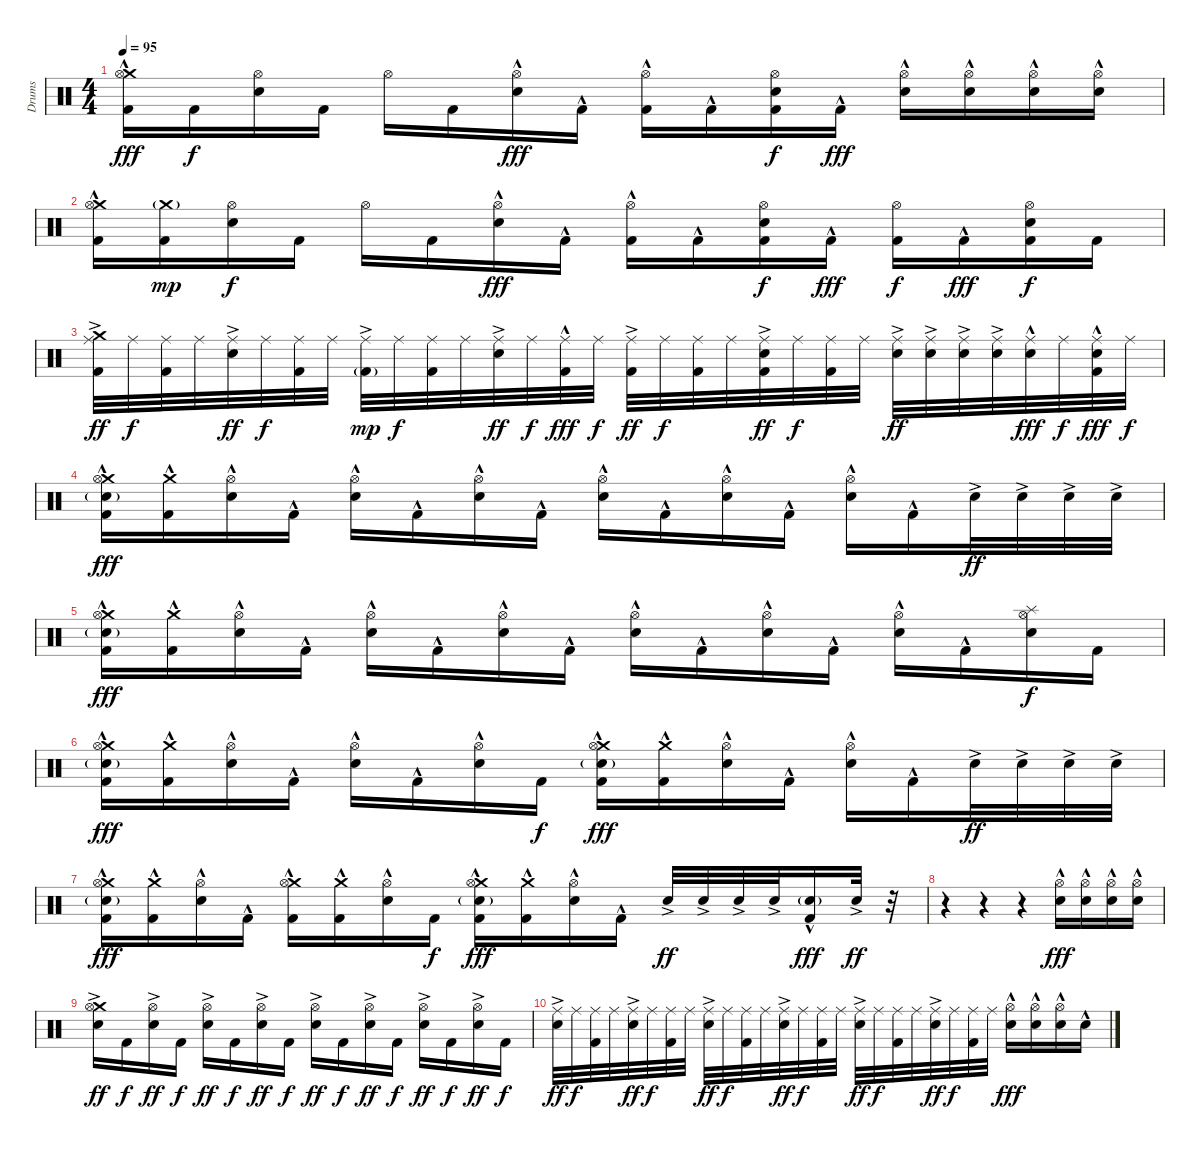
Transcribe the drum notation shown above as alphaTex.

\track ("Drums" "Drums") {instrument percussion}
\staff {score}
\articulation defaults
\ts (4 4)
\tempo 95
\clef neutral
\ks c
("Crash medium (hit)" "Hi-Hat (open)" "Kick (hit) 2"{hac}).16{dy fff} "Kick (hit) 2".16{dy f} ("Hi-Hat (open)" "Snare (hit) 2").16 "Kick (hit) 2".16 "Hi-Hat (open)".16 "Kick (hit) 2".16 ("Hi-Hat (open)" "Snare (hit) 2"{hac}).16{dy fff} "Kick (hit) 2"{hac}.16 ("Hi-Hat (open)" "Kick (hit) 2"{hac}).16 "Kick (hit) 2"{hac}.16 ("Hi-Hat (open)" "Snare (hit) 2" "Kick (hit) 2").16{dy f} "Kick (hit) 2"{hac}.16{dy fff} ("Hi-Hat (open)" "Snare (hit) 2"{hac}).16 ("Hi-Hat (open)" "Snare (hit) 2"{hac}).16 ("Hi-Hat (open)" "Snare (hit) 2"{hac}).16 ("Hi-Hat (open)" "Snare (hit) 2"{hac}).16 |
("Crash medium (hit)" "Hi-Hat (open)" "Kick (hit) 2"{hac}).16 ("Crash medium (hit)"{g} "Kick (hit) 2").16{dy mp} ("Hi-Hat (open)" "Snare (hit) 2").16{dy f} "Kick (hit) 2".16 "Hi-Hat (open)".16 "Kick (hit) 2".16 ("Hi-Hat (open)" "Snare (hit) 2"{hac}).16{dy fff} "Kick (hit) 2"{hac}.16 ("Hi-Hat (open)" "Kick (hit) 2"{hac}).16 "Kick (hit) 2"{hac}.16 ("Hi-Hat (open)" "Snare (hit) 2" "Kick (hit) 2").16{dy f} "Kick (hit) 2"{hac}.16{dy fff} ("Hi-Hat (open)" "Kick (hit) 2").16{dy f} "Kick (hit) 2"{hac}.16{dy fff} ("Hi-Hat (open)" "Snare (hit) 2" "Kick (hit) 2").16{dy f} "Kick (hit) 2".16 |
("Crash medium (hit)" "Ride (middle)"{ac} "Kick (hit) 2").32{dy ff} "Ride (middle)".32{dy f} ("Ride (middle)" "Kick (hit) 2").32 "Ride (middle)".32 ("Ride (middle)"{ac} "Snare (hit) 2").32{dy ff} "Ride (middle)".32{dy f} ("Ride (middle)" "Kick (hit) 2").32 "Ride (middle)".32 ("Ride (middle)"{ac} "Kick (hit) 2"{g}).32{dy mp} "Ride (middle)".32{dy f} ("Ride (middle)" "Kick (hit) 2").32 "Ride (middle)".32 ("Ride (middle)"{ac} "Snare (hit) 2").32{dy ff} "Ride (middle)".32{dy f} ("Ride (middle)" "Kick (hit) 2"{hac}).32{dy fff} "Ride (middle)".32{dy f} ("Ride (middle)"{ac} "Kick (hit) 2").32{dy ff} "Ride (middle)".32{dy f} ("Ride (middle)" "Kick (hit) 2").32 "Ride (middle)".32 ("Ride (middle)"{ac} "Snare (hit) 2" "Kick (hit) 2").32{dy ff} "Ride (middle)".32{dy f} ("Ride (middle)" "Kick (hit) 2").32 "Ride (middle)".32 ("Ride (middle)" "Snare (hit) 2"{ac}).32{dy ff} ("Ride (middle)" "Snare (hit) 2"{ac}).32 ("Ride (middle)" "Snare (hit) 2"{ac}).32 ("Ride (middle)" "Snare (hit) 2"{ac}).32 ("Ride (middle)" "Snare (hit) 2"{hac}).32{dy fff} "Ride (middle)".32{dy f} ("Ride (middle)" "Snare (hit) 2"{hac} "Kick (hit) 2").32{dy fff} "Ride (middle)".32{dy f} |
("Crash medium (hit)" "Hi-Hat (open)" "Snare (hit) 2"{g} "Kick (hit) 2"{hac}).16{dy fff} ("Crash medium (hit)" "Kick (hit) 2"{hac}).16 ("Hi-Hat (open)" "Snare (hit) 2"{hac}).16 "Kick (hit) 2"{hac}.16 ("Hi-Hat (open)" "Snare (hit) 2"{hac}).16 "Kick (hit) 2"{hac}.16 ("Hi-Hat (open)" "Snare (hit) 2"{hac}).16 "Kick (hit) 2"{hac}.16 ("Hi-Hat (open)" "Snare (hit) 2"{hac}).16 "Kick (hit) 2"{hac}.16 ("Hi-Hat (open)" "Snare (hit) 2"{hac}).16 "Kick (hit) 2"{hac}.16 ("Hi-Hat (open)" "Snare (hit) 2"{hac}).16 "Kick (hit) 2"{hac}.16 "Snare (hit) 2"{ac}.32{dy ff} "Snare (hit) 2"{ac}.32 "Snare (hit) 2"{ac}.32 "Snare (hit) 2"{ac}.32 |
("Crash medium (hit)" "Hi-Hat (open)" "Snare (hit) 2"{g} "Kick (hit) 2"{hac}).16{dy fff} ("Crash medium (hit)" "Kick (hit) 2"{hac}).16 ("Hi-Hat (open)" "Snare (hit) 2"{hac}).16 "Kick (hit) 2"{hac}.16 ("Hi-Hat (open)" "Snare (hit) 2"{hac}).16 "Kick (hit) 2"{hac}.16 ("Hi-Hat (open)" "Snare (hit) 2"{hac}).16 "Kick (hit) 2"{hac}.16 ("Hi-Hat (open)" "Snare (hit) 2"{hac}).16 "Kick (hit) 2"{hac}.16 ("Hi-Hat (open)" "Snare (hit) 2"{hac}).16 "Kick (hit) 2"{hac}.16 ("Hi-Hat (open)" "Snare (hit) 2"{hac}).16 "Kick (hit) 2"{hac}.16 ("Splash (hit)" "Hi-Hat (open)" "Snare (hit) 2").16{dy f} "Kick (hit) 2".16 |
("Crash medium (hit)" "Hi-Hat (open)" "Snare (hit) 2"{g} "Kick (hit) 2"{hac}).16{dy fff} ("Crash medium (hit)" "Kick (hit) 2"{hac}).16 ("Hi-Hat (open)" "Snare (hit) 2"{hac}).16 "Kick (hit) 2"{hac}.16 ("Hi-Hat (open)" "Snare (hit) 2"{hac}).16 "Kick (hit) 2"{hac}.16 ("Hi-Hat (open)" "Snare (hit) 2"{hac}).16 "Kick (hit) 2".16{dy f} ("Crash medium (hit)" "Hi-Hat (open)" "Snare (hit) 2"{g} "Kick (hit) 2"{hac}).16{dy fff} ("Crash medium (hit)" "Kick (hit) 2"{hac}).16 ("Hi-Hat (open)" "Snare (hit) 2"{hac}).16 "Kick (hit) 2"{hac}.16 ("Hi-Hat (open)" "Snare (hit) 2"{hac}).16 "Kick (hit) 2"{hac}.16 "Snare (hit) 2"{ac}.32{dy ff} "Snare (hit) 2"{ac}.32 "Snare (hit) 2"{ac}.32 "Snare (hit) 2"{ac}.32 |
("Crash medium (hit)" "Hi-Hat (open)" "Snare (hit) 2"{g} "Kick (hit) 2"{hac}).16{dy fff} ("Crash medium (hit)" "Kick (hit) 2"{hac}).16 ("Hi-Hat (open)" "Snare (hit) 2"{hac}).16 "Kick (hit) 2"{hac}.16 ("Crash medium (hit)" "Hi-Hat (open)" "Kick (hit) 2"{hac}).16 ("Crash medium (hit)" "Kick (hit) 2"{hac}).16 ("Hi-Hat (open)" "Snare (hit) 2"{hac}).16 "Kick (hit) 2".16{dy f} ("Crash medium (hit)" "Hi-Hat (open)" "Snare (hit) 2"{g} "Kick (hit) 2"{hac}).16{dy fff} ("Crash medium (hit)" "Kick (hit) 2"{hac}).16 ("Hi-Hat (open)" "Snare (hit) 2"{hac}).16 "Kick (hit) 2"{hac}.16 "Snare (hit) 2"{ac}.32{dy ff} "Snare (hit) 2"{ac}.32 "Snare (hit) 2"{ac}.32 "Snare (hit) 2"{ac}.32 ("Snare (hit) 2"{g} "Kick (hit) 2"{hac}).16{dy fff} "Snare (hit) 2"{ac}.32{dy ff} r.32 |
r.4 r.4 r.4 ("Hi-Hat (open)" "Snare (hit) 2"{hac}).16{dy fff} ("Hi-Hat (open)" "Snare (hit) 2"{hac}).16 ("Hi-Hat (open)" "Snare (hit) 2"{hac}).16 ("Hi-Hat (open)" "Snare (hit) 2"{hac}).16 |
("Crash medium (hit)" "Hi-Hat (open)" "Snare (hit) 2"{ac}).16{dy ff} "Kick (hit) 2".16{dy f} ("Hi-Hat (open)" "Snare (hit) 2"{ac}).16{dy ff} "Kick (hit) 2".16{dy f} ("Hi-Hat (open)" "Snare (hit) 2"{ac}).16{dy ff} "Kick (hit) 2".16{dy f} ("Hi-Hat (open)" "Snare (hit) 2"{ac}).16{dy ff} "Kick (hit) 2".16{dy f} ("Hi-Hat (open)" "Snare (hit) 2"{ac}).16{dy ff} "Kick (hit) 2".16{dy f} ("Hi-Hat (open)" "Snare (hit) 2"{ac}).16{dy ff} "Kick (hit) 2".16{dy f} ("Hi-Hat (open)" "Snare (hit) 2"{ac}).16{dy ff} "Kick (hit) 2".16{dy f} ("Hi-Hat (open)" "Snare (hit) 2"{ac}).16{dy ff} "Kick (hit) 2".16{dy f} |
("Ride (middle)"{ac} "Snare (hit) 2"{ac}).32{dy ff} "Ride (middle)".32{dy f} ("Ride (middle)" "Kick (hit) 2").32 "Ride (middle)".32 ("Ride (middle)"{ac} "Snare (hit) 2"{ac}).32{dy ff} "Ride (middle)".32{dy f} ("Ride (middle)" "Kick (hit) 2").32 "Ride (middle)".32 ("Ride (middle)"{ac} "Snare (hit) 2"{ac}).32{dy ff} "Ride (middle)".32{dy f} ("Ride (middle)" "Kick (hit) 2").32 "Ride (middle)".32 ("Ride (middle)"{ac} "Snare (hit) 2"{ac}).32{dy ff} "Ride (middle)".32{dy f} ("Ride (middle)" "Kick (hit) 2").32 "Ride (middle)".32 ("Ride (middle)"{ac} "Snare (hit) 2"{ac}).32{dy ff} "Ride (middle)".32{dy f} ("Ride (middle)" "Kick (hit) 2").32 "Ride (middle)".32 ("Ride (middle)"{ac} "Snare (hit) 2"{ac}).32{dy ff} "Ride (middle)".32{dy f} ("Ride (middle)" "Kick (hit) 2").32 "Ride (middle)".32 ("Hi-Hat (open)" "Snare (hit) 2"{hac}).16{dy fff} ("Hi-Hat (open)" "Snare (hit) 2"{hac}).16 ("Hi-Hat (open)" "Snare (hit) 2"{hac}).16 "Snare (hit) 2"{hac}.16
